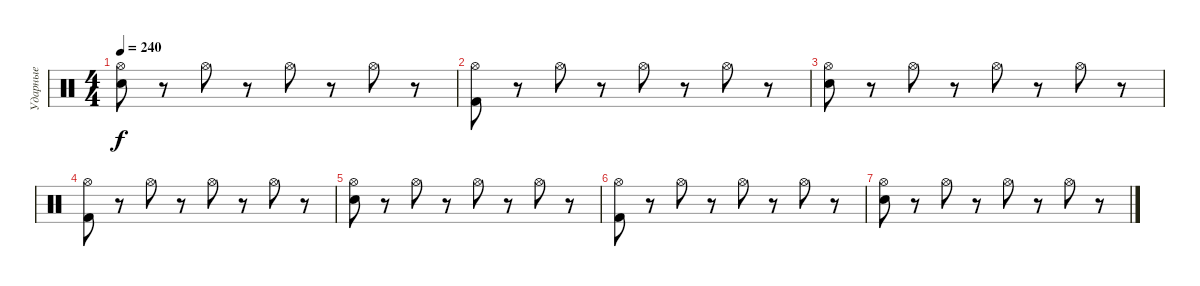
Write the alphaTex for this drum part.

\track ("Ударные" "Ударные") {instrument percussion}
\staff {score}
\articulation defaults
\ts (4 4)
\tempo 240
\clef neutral
\ks c
("Electric Snare (hit)" "Hi-Hat (open)").8{dy f} r.8 "Hi-Hat (open)".8 r.8 "Hi-Hat (open)".8 r.8 "Hi-Hat (open)".8 r.8 |
("Kick (hit) 2" "Hi-Hat (open)").8 r.8 "Hi-Hat (open)".8 r.8 "Hi-Hat (open)".8 r.8 "Hi-Hat (open)".8 r.8 |
("Electric Snare (hit)" "Hi-Hat (open)").8 r.8 "Hi-Hat (open)".8 r.8 "Hi-Hat (open)".8 r.8 "Hi-Hat (open)".8 r.8 |
("Kick (hit) 2" "Hi-Hat (open)").8 r.8 "Hi-Hat (open)".8 r.8 "Hi-Hat (open)".8 r.8 "Hi-Hat (open)".8 r.8 |
("Electric Snare (hit)" "Hi-Hat (open)").8 r.8 "Hi-Hat (open)".8 r.8 "Hi-Hat (open)".8 r.8 "Hi-Hat (open)".8 r.8 |
("Kick (hit) 2" "Hi-Hat (open)").8 r.8 "Hi-Hat (open)".8 r.8 "Hi-Hat (open)".8 r.8 "Hi-Hat (open)".8 r.8 |
("Electric Snare (hit)" "Hi-Hat (open)").8 r.8 "Hi-Hat (open)".8 r.8 "Hi-Hat (open)".8 r.8 "Hi-Hat (open)".8 r.8
